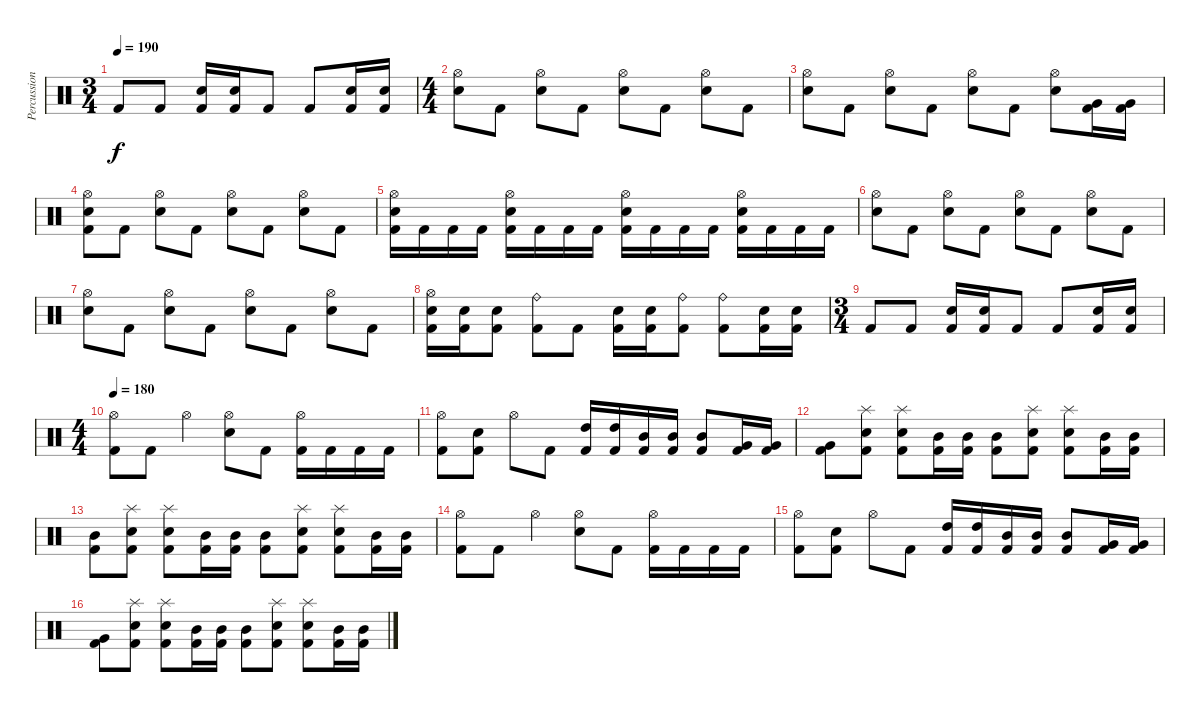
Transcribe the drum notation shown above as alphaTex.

\track ("Percussion" "Percussion") {instrument percussion}
\staff {score}
\articulation defaults
\ts (3 4)
\tempo 190
\clef neutral
\ks c "Kick (hit) 2".8{dy f} "Kick (hit) 2".8
("Electric Snare (hit)" "Kick (hit) 2").16 ("Electric Snare (hit)" "Kick (hit) 2").16 "Kick (hit) 2".8 "Kick (hit) 2".8 ("Electric Snare (hit)" "Kick (hit) 2").16 ("Electric Snare (hit)" "Kick (hit) 2").16 |
\ts (4 4)
("Hi-Hat (open)" "Electric Snare (hit)").8 "Kick (hit) 2".8 ("Hi-Hat (open)" "Electric Snare (hit)").8 "Kick (hit) 2".8 ("Hi-Hat (open)" "Electric Snare (hit)").8 "Kick (hit) 2".8 ("Hi-Hat (open)" "Electric Snare (hit)").8 "Kick (hit) 2".8 |
("Hi-Hat (open)" "Electric Snare (hit)").8 "Kick (hit) 2".8 ("Hi-Hat (open)" "Electric Snare (hit)").8 "Kick (hit) 2".8 ("Hi-Hat (open)" "Electric Snare (hit)").8 "Kick (hit) 2".8 ("Hi-Hat (open)" "Electric Snare (hit)").8 ("Very Low Tom (hit)" "Kick (hit) 2").16 ("Very Low Tom (hit)" "Kick (hit) 2").16 |
("Hi-Hat (open)" "Electric Snare (hit)" "Kick (hit) 2").8 "Kick (hit) 2".8 ("Hi-Hat (open)" "Electric Snare (hit)").8 "Kick (hit) 2".8 ("Hi-Hat (open)" "Electric Snare (hit)").8 "Kick (hit) 2".8 ("Hi-Hat (open)" "Electric Snare (hit)").8 "Kick (hit) 2".8 |
("Hi-Hat (open)" "Electric Snare (hit)" "Kick (hit) 2").16 "Kick (hit) 2".16 "Kick (hit) 2".16 "Kick (hit) 2".16 ("Hi-Hat (open)" "Electric Snare (hit)" "Kick (hit) 2").16 "Kick (hit) 2".16 "Kick (hit) 2".16 "Kick (hit) 2".16 ("Hi-Hat (open)" "Electric Snare (hit)" "Kick (hit) 2").16 "Kick (hit) 2".16 "Kick (hit) 2".16 "Kick (hit) 2".16 ("Hi-Hat (open)" "Electric Snare (hit)" "Kick (hit) 2").16 "Kick (hit) 2".16 "Kick (hit) 2".16 "Kick (hit) 2".16 |
("Hi-Hat (open)" "Electric Snare (hit)").8 "Kick (hit) 2".8 ("Hi-Hat (open)" "Electric Snare (hit)").8 "Kick (hit) 2".8 ("Hi-Hat (open)" "Electric Snare (hit)").8 "Kick (hit) 2".8 ("Hi-Hat (open)" "Electric Snare (hit)").8 "Kick (hit) 2".8 |
("Hi-Hat (open)" "Electric Snare (hit)").8 "Kick (hit) 2".8 ("Hi-Hat (open)" "Electric Snare (hit)").8 "Kick (hit) 2".8 ("Hi-Hat (open)" "Electric Snare (hit)").8 "Kick (hit) 2".8 ("Hi-Hat (open)" "Electric Snare (hit)").8 "Kick (hit) 2".8 |
("Hi-Hat (open)" "Electric Snare (hit)" "Kick (hit) 2").16 ("Electric Snare (hit)" "Kick (hit) 2").16 ("Electric Snare (hit)" "Kick (hit) 2").8 ("Ride (bell)" "Kick (hit) 2").8 "Kick (hit) 2".8 ("Electric Snare (hit)" "Kick (hit) 2").16 ("Electric Snare (hit)" "Kick (hit) 2").16 ("Ride (bell)" "Kick (hit) 2").8 ("Ride (bell)" "Kick (hit) 2").8 ("Electric Snare (hit)" "Kick (hit) 2").16 ("Electric Snare (hit)" "Kick (hit) 2").16 |
\ts (3 4)
"Kick (hit) 2".8 "Kick (hit) 2".8 ("Electric Snare (hit)" "Kick (hit) 2").16 ("Electric Snare (hit)" "Kick (hit) 2").16 "Kick (hit) 2".8 "Kick (hit) 2".8 ("Electric Snare (hit)" "Kick (hit) 2").16 ("Electric Snare (hit)" "Kick (hit) 2").16 |
\ts (4 4)
\tempo 180
("Hi-Hat (open)" "Kick (hit) 2").8 "Kick (hit) 2".8 "Hi-Hat (open)".4 ("Hi-Hat (open)" "Electric Snare (hit)").8 "Kick (hit) 2".8 ("Hi-Hat (open)" "Kick (hit) 2").16 "Kick (hit) 2".16 "Kick (hit) 2".16 "Kick (hit) 2".16 |
("Hi-Hat (open)" "Kick (hit) 2").8 ("Electric Snare (hit)" "Kick (hit) 2").8 "Hi-Hat (open)".8 "Kick (hit) 2".8 ("High Tom (hit)" "Kick (hit) 2").16 ("High Tom (hit)" "Kick (hit) 2").16 ("Mid Tom (hit)" "Kick (hit) 2").16 ("Mid Tom (hit)" "Kick (hit) 2").16 ("Mid Tom (hit)" "Kick (hit) 2").8 ("Very Low Tom (hit)" "Kick (hit) 2").16 ("Very Low Tom (hit)" "Kick (hit) 2").16 |
("Very Low Tom (hit)" "Kick (hit) 2").8 ("Splash (hit)" "Electric Snare (hit)" "Kick (hit) 2").8 ("Splash (hit)" "Electric Snare (hit)" "Kick (hit) 2").8 ("Mid Tom (hit)" "Kick (hit) 2").16 ("Mid Tom (hit)" "Kick (hit) 2").16 ("Mid Tom (hit)" "Kick (hit) 2").8 ("Splash (hit)" "Electric Snare (hit)" "Kick (hit) 2").8 ("Splash (hit)" "Electric Snare (hit)" "Kick (hit) 2").8 ("Mid Tom (hit)" "Kick (hit) 2").16 ("Mid Tom (hit)" "Kick (hit) 2").16 |
("Mid Tom (hit)" "Kick (hit) 2").8 ("Splash (hit)" "Electric Snare (hit)" "Kick (hit) 2").8 ("Splash (hit)" "Electric Snare (hit)" "Kick (hit) 2").8 ("Mid Tom (hit)" "Kick (hit) 2").16 ("Mid Tom (hit)" "Kick (hit) 2").16 ("Mid Tom (hit)" "Kick (hit) 2").8 ("Splash (hit)" "Electric Snare (hit)" "Kick (hit) 2").8 ("Splash (hit)" "Electric Snare (hit)" "Kick (hit) 2").8 ("Mid Tom (hit)" "Kick (hit) 2").16 ("Mid Tom (hit)" "Kick (hit) 2").16 |
("Hi-Hat (open)" "Kick (hit) 2").8 "Kick (hit) 2".8 "Hi-Hat (open)".4 ("Hi-Hat (open)" "Electric Snare (hit)").8 "Kick (hit) 2".8 ("Hi-Hat (open)" "Kick (hit) 2").16 "Kick (hit) 2".16 "Kick (hit) 2".16 "Kick (hit) 2".16 |
("Hi-Hat (open)" "Kick (hit) 2").8 ("Electric Snare (hit)" "Kick (hit) 2").8 "Hi-Hat (open)".8 "Kick (hit) 2".8 ("High Tom (hit)" "Kick (hit) 2").16 ("High Tom (hit)" "Kick (hit) 2").16 ("Mid Tom (hit)" "Kick (hit) 2").16 ("Mid Tom (hit)" "Kick (hit) 2").16 ("Mid Tom (hit)" "Kick (hit) 2").8 ("Very Low Tom (hit)" "Kick (hit) 2").16 ("Very Low Tom (hit)" "Kick (hit) 2").16 |
("Very Low Tom (hit)" "Kick (hit) 2").8 ("Splash (hit)" "Electric Snare (hit)" "Kick (hit) 2").8 ("Splash (hit)" "Electric Snare (hit)" "Kick (hit) 2").8 ("Mid Tom (hit)" "Kick (hit) 2").16 ("Mid Tom (hit)" "Kick (hit) 2").16 ("Mid Tom (hit)" "Kick (hit) 2").8 ("Splash (hit)" "Electric Snare (hit)" "Kick (hit) 2").8 ("Splash (hit)" "Electric Snare (hit)" "Kick (hit) 2").8 ("Mid Tom (hit)" "Kick (hit) 2").16 ("Mid Tom (hit)" "Kick (hit) 2").16
